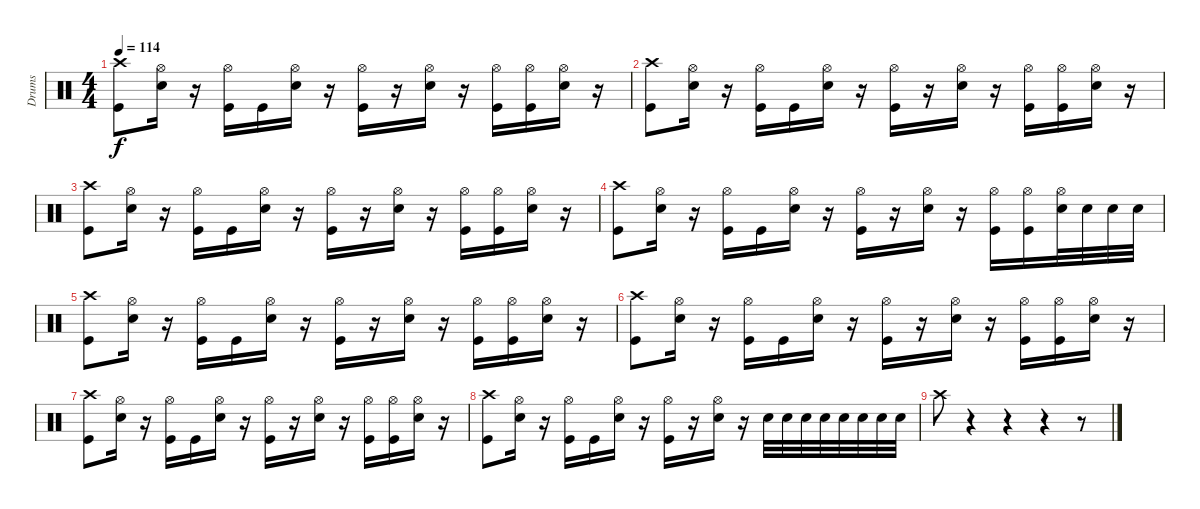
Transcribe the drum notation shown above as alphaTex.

\track ("Drums" "Drums") {instrument percussion}
\staff {score}
\articulation defaults
\ts (4 4)
\tempo 114
\clef neutral
\ks c
("Crash high (hit)" "Kick (hit)").8{dy f} ("Hi-Hat (open)" "Snare (hit) 2").16 r.16 ("Hi-Hat (open)" "Kick (hit)").16 "Kick (hit)".16 ("Hi-Hat (open)" "Snare (hit) 2").16 r.16 ("Hi-Hat (open)" "Kick (hit)").16 r.16 ("Hi-Hat (open)" "Snare (hit) 2").16 r.16 ("Hi-Hat (open)" "Kick (hit)").16 ("Hi-Hat (open)" "Kick (hit)").16 ("Hi-Hat (open)" "Snare (hit) 2").16 r.16 |
("Crash high (hit)" "Kick (hit)").8 ("Hi-Hat (open)" "Snare (hit) 2").16 r.16 ("Hi-Hat (open)" "Kick (hit)").16 "Kick (hit)".16 ("Hi-Hat (open)" "Snare (hit) 2").16 r.16 ("Hi-Hat (open)" "Kick (hit)").16 r.16 ("Hi-Hat (open)" "Snare (hit) 2").16 r.16 ("Hi-Hat (open)" "Kick (hit)").16 ("Hi-Hat (open)" "Kick (hit)").16 ("Hi-Hat (open)" "Snare (hit) 2").16 r.16 |
("Crash high (hit)" "Kick (hit)").8 ("Hi-Hat (open)" "Snare (hit) 2").16 r.16 ("Hi-Hat (open)" "Kick (hit)").16 "Kick (hit)".16 ("Hi-Hat (open)" "Snare (hit) 2").16 r.16 ("Hi-Hat (open)" "Kick (hit)").16 r.16 ("Hi-Hat (open)" "Snare (hit) 2").16 r.16 ("Hi-Hat (open)" "Kick (hit)").16 ("Hi-Hat (open)" "Kick (hit)").16 ("Hi-Hat (open)" "Snare (hit) 2").16 r.16 |
("Crash high (hit)" "Kick (hit)").8 ("Hi-Hat (open)" "Snare (hit) 2").16 r.16 ("Hi-Hat (open)" "Kick (hit)").16 "Kick (hit)".16 ("Hi-Hat (open)" "Snare (hit) 2").16 r.16 ("Hi-Hat (open)" "Kick (hit)").16 r.16 ("Hi-Hat (open)" "Snare (hit) 2").16 r.16 ("Hi-Hat (open)" "Kick (hit)").16 ("Hi-Hat (open)" "Kick (hit)").16 ("Hi-Hat (open)" "Snare (hit) 2").32 "Snare (hit) 2".32 "Snare (hit) 2".32 "Snare (hit) 2".32 |
("Crash high (hit)" "Kick (hit)").8 ("Hi-Hat (open)" "Snare (hit) 2").16 r.16 ("Hi-Hat (open)" "Kick (hit)").16 "Kick (hit)".16 ("Hi-Hat (open)" "Snare (hit) 2").16 r.16 ("Hi-Hat (open)" "Kick (hit)").16 r.16 ("Hi-Hat (open)" "Snare (hit) 2").16 r.16 ("Hi-Hat (open)" "Kick (hit)").16 ("Hi-Hat (open)" "Kick (hit)").16 ("Hi-Hat (open)" "Snare (hit) 2").16 r.16 |
("Crash high (hit)" "Kick (hit)").8 ("Hi-Hat (open)" "Snare (hit) 2").16 r.16 ("Hi-Hat (open)" "Kick (hit)").16 "Kick (hit)".16 ("Hi-Hat (open)" "Snare (hit) 2").16 r.16 ("Hi-Hat (open)" "Kick (hit)").16 r.16 ("Hi-Hat (open)" "Snare (hit) 2").16 r.16 ("Hi-Hat (open)" "Kick (hit)").16 ("Hi-Hat (open)" "Kick (hit)").16 ("Hi-Hat (open)" "Snare (hit) 2").16 r.16 |
("Crash high (hit)" "Kick (hit)").8 ("Hi-Hat (open)" "Snare (hit) 2").16 r.16 ("Hi-Hat (open)" "Kick (hit)").16 "Kick (hit)".16 ("Hi-Hat (open)" "Snare (hit) 2").16 r.16 ("Hi-Hat (open)" "Kick (hit)").16 r.16 ("Hi-Hat (open)" "Snare (hit) 2").16 r.16 ("Hi-Hat (open)" "Kick (hit)").16 ("Hi-Hat (open)" "Kick (hit)").16 ("Hi-Hat (open)" "Snare (hit) 2").16 r.16 |
("Crash high (hit)" "Kick (hit)").8 ("Hi-Hat (open)" "Snare (hit) 2").16 r.16 ("Hi-Hat (open)" "Kick (hit)").16 "Kick (hit)".16 ("Hi-Hat (open)" "Snare (hit) 2").16 r.16 ("Hi-Hat (open)" "Kick (hit)").16 r.16 ("Hi-Hat (open)" "Snare (hit) 2").16 r.16 "Snare (hit) 2".32 "Snare (hit) 2".32 "Snare (hit) 2".32 "Snare (hit) 2".32 "Snare (hit) 2".32 "Snare (hit) 2".32 "Snare (hit) 2".32 "Snare (hit) 2".32 |
"Crash high (hit)".8 r.4 r.4 r.4 r.8
